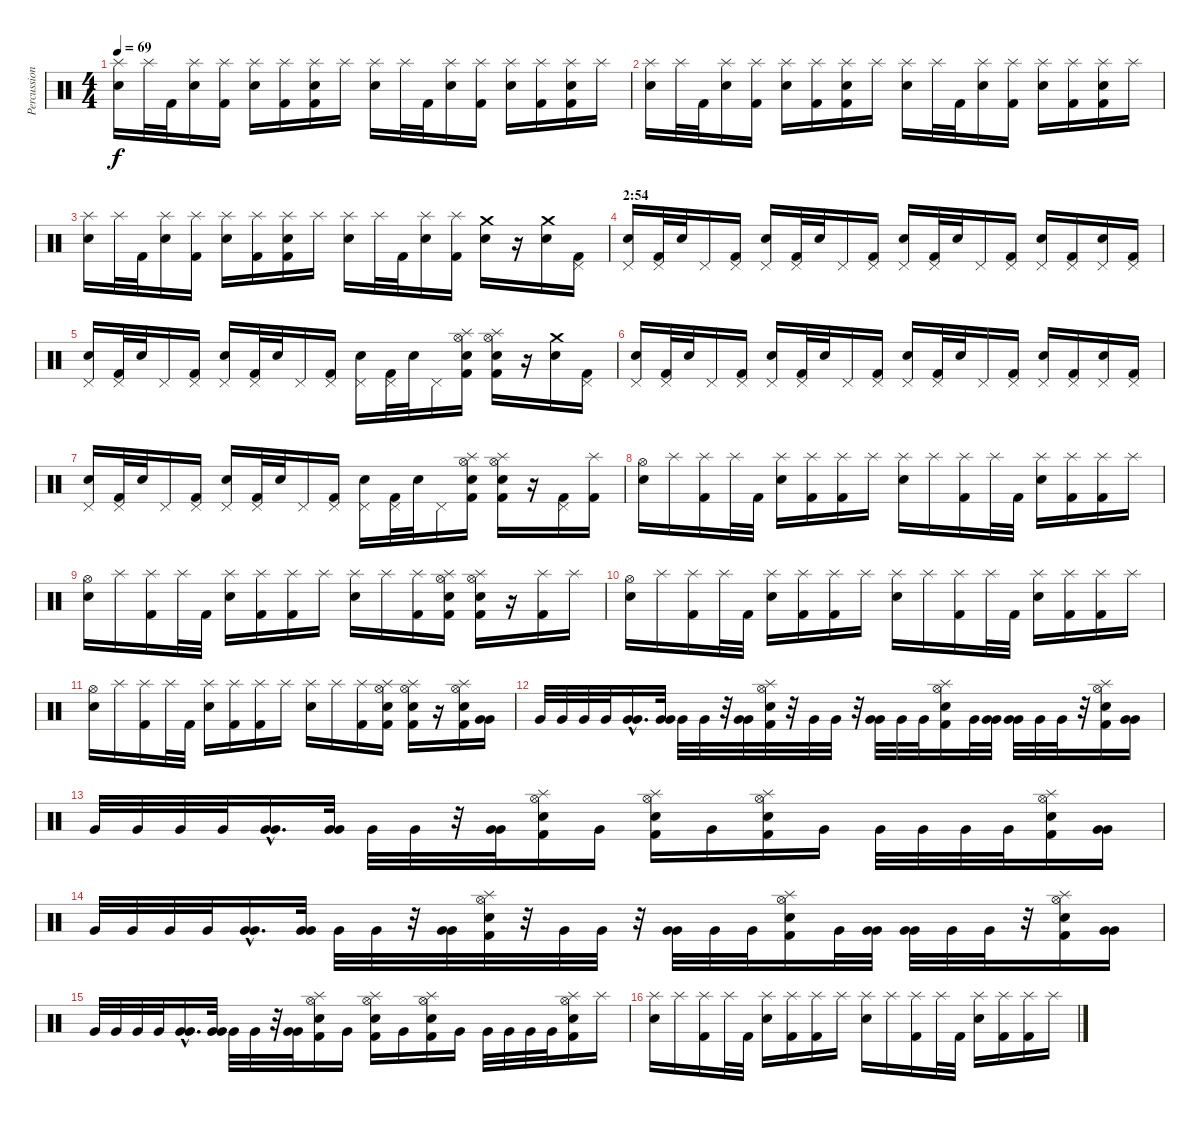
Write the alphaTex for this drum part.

\track ("Percussion" "Percussion") {instrument percussion}
\staff {score}
\articulation defaults
\ts (4 4)
\tempo 69
\clef neutral
\ks c
("Splash (hit)" "Snare (hit) 2").16{dy f} "Splash (hit)".32 "Kick (hit) 2".32 ("Splash (hit)" "Snare (hit) 2").16 ("Splash (hit)" "Kick (hit) 2").16 ("Splash (hit)" "Snare (hit) 2").16 ("Splash (hit)" "Kick (hit) 2").16 ("Splash (hit)" "Snare (hit) 2" "Kick (hit) 2").16 "Splash (hit)".16 ("Splash (hit)" "Snare (hit) 2").16 "Splash (hit)".32 "Kick (hit) 2".32 ("Splash (hit)" "Snare (hit) 2").16 ("Splash (hit)" "Kick (hit) 2").16 ("Splash (hit)" "Snare (hit) 2").16 ("Splash (hit)" "Kick (hit) 2").16 ("Splash (hit)" "Snare (hit) 2" "Kick (hit) 2").16 "Splash (hit)".16 |
("Splash (hit)" "Snare (hit) 2").16 "Splash (hit)".32 "Kick (hit) 2".32 ("Splash (hit)" "Snare (hit) 2").16 ("Splash (hit)" "Kick (hit) 2").16 ("Splash (hit)" "Snare (hit) 2").16 ("Splash (hit)" "Kick (hit) 2").16 ("Splash (hit)" "Snare (hit) 2" "Kick (hit) 2").16 "Splash (hit)".16 ("Splash (hit)" "Snare (hit) 2").16 "Splash (hit)".32 "Kick (hit) 2".32 ("Splash (hit)" "Snare (hit) 2").16 ("Splash (hit)" "Kick (hit) 2").16 ("Splash (hit)" "Snare (hit) 2").16 ("Splash (hit)" "Kick (hit) 2").16 ("Splash (hit)" "Snare (hit) 2" "Kick (hit) 2").16 "Splash (hit)".16 |
("Splash (hit)" "Snare (hit) 2").16 "Splash (hit)".32 "Kick (hit) 2".32 ("Splash (hit)" "Snare (hit) 2").16 ("Splash (hit)" "Kick (hit) 2").16 ("Splash (hit)" "Snare (hit) 2").16 ("Splash (hit)" "Kick (hit) 2").16 ("Splash (hit)" "Snare (hit) 2" "Kick (hit) 2").16 "Splash (hit)".16 ("Splash (hit)" "Snare (hit) 2").16 "Splash (hit)".32 "Kick (hit) 2".32 ("Splash (hit)" "Snare (hit) 2").16 ("Splash (hit)" "Kick (hit) 2").16 ("Crash medium (hit)" "Snare (hit) 2").16 r.16 ("Crash medium (hit)" "Snare (hit) 2").16 ("Pedal Hi-Hat (hit)" "Kick (hit) 2").16 |
\section ("" "2:54")
("Pedal Hi-Hat (hit)" "Snare (hit) 2").16 ("Pedal Hi-Hat (hit)" "Kick (hit) 2").32 "Snare (hit) 2".32 "Pedal Hi-Hat (hit)".16 ("Pedal Hi-Hat (hit)" "Kick (hit) 2").16 ("Pedal Hi-Hat (hit)" "Snare (hit) 2").16 ("Pedal Hi-Hat (hit)" "Kick (hit) 2").32 "Snare (hit) 2".32 "Pedal Hi-Hat (hit)".16 ("Pedal Hi-Hat (hit)" "Kick (hit) 2").16 ("Pedal Hi-Hat (hit)" "Snare (hit) 2").16 ("Pedal Hi-Hat (hit)" "Kick (hit) 2").32 "Snare (hit) 2".32 "Pedal Hi-Hat (hit)".16 ("Pedal Hi-Hat (hit)" "Kick (hit) 2").16 ("Pedal Hi-Hat (hit)" "Snare (hit) 2").16 ("Pedal Hi-Hat (hit)" "Kick (hit) 2").16 ("Pedal Hi-Hat (hit)" "Snare (hit) 2").16 ("Pedal Hi-Hat (hit)" "Kick (hit) 2").16 |
("Pedal Hi-Hat (hit)" "Snare (hit) 2").16 ("Pedal Hi-Hat (hit)" "Kick (hit) 2").32 "Snare (hit) 2".32 "Pedal Hi-Hat (hit)".16 ("Pedal Hi-Hat (hit)" "Kick (hit) 2").16 ("Pedal Hi-Hat (hit)" "Snare (hit) 2").16 ("Pedal Hi-Hat (hit)" "Kick (hit) 2").32 "Snare (hit) 2".32 "Pedal Hi-Hat (hit)".16 ("Pedal Hi-Hat (hit)" "Kick (hit) 2").16 ("Pedal Hi-Hat (hit)" "Snare (hit) 2").16 ("Pedal Hi-Hat (hit)" "Kick (hit) 2").32 "Snare (hit) 2".32 "Pedal Hi-Hat (hit)".16 ("Splash (hit)" "Hi-Hat (open)" "Snare (hit) 2" "Kick (hit) 2").16 ("Splash (hit)" "Hi-Hat (open)" "Snare (hit) 2" "Kick (hit) 2").16 r.16 ("Crash medium (hit)" "Snare (hit) 2").16 ("Pedal Hi-Hat (hit)" "Kick (hit) 2").16 |
("Pedal Hi-Hat (hit)" "Snare (hit) 2").16 ("Pedal Hi-Hat (hit)" "Kick (hit) 2").32 "Snare (hit) 2".32 "Pedal Hi-Hat (hit)".16 ("Pedal Hi-Hat (hit)" "Kick (hit) 2").16 ("Pedal Hi-Hat (hit)" "Snare (hit) 2").16 ("Pedal Hi-Hat (hit)" "Kick (hit) 2").32 "Snare (hit) 2".32 "Pedal Hi-Hat (hit)".16 ("Pedal Hi-Hat (hit)" "Kick (hit) 2").16 ("Pedal Hi-Hat (hit)" "Snare (hit) 2").16 ("Pedal Hi-Hat (hit)" "Kick (hit) 2").32 "Snare (hit) 2".32 "Pedal Hi-Hat (hit)".16 ("Pedal Hi-Hat (hit)" "Kick (hit) 2").16 ("Pedal Hi-Hat (hit)" "Snare (hit) 2").16 ("Pedal Hi-Hat (hit)" "Kick (hit) 2").16 ("Pedal Hi-Hat (hit)" "Snare (hit) 2").16 ("Pedal Hi-Hat (hit)" "Kick (hit) 2").16 |
("Pedal Hi-Hat (hit)" "Snare (hit) 2").16 ("Pedal Hi-Hat (hit)" "Kick (hit) 2").32 "Snare (hit) 2".32 "Pedal Hi-Hat (hit)".16 ("Pedal Hi-Hat (hit)" "Kick (hit) 2").16 ("Pedal Hi-Hat (hit)" "Snare (hit) 2").16 ("Pedal Hi-Hat (hit)" "Kick (hit) 2").32 "Snare (hit) 2".32 "Pedal Hi-Hat (hit)".16 ("Pedal Hi-Hat (hit)" "Kick (hit) 2").16 ("Pedal Hi-Hat (hit)" "Snare (hit) 2").16 ("Pedal Hi-Hat (hit)" "Kick (hit) 2").32 "Snare (hit) 2".32 "Pedal Hi-Hat (hit)".16 ("Splash (hit)" "Hi-Hat (open)" "Snare (hit) 2" "Kick (hit) 2").16 ("Splash (hit)" "Hi-Hat (open)" "Snare (hit) 2" "Kick (hit) 2").16 r.16 ("Pedal Hi-Hat (hit)" "Kick (hit) 2").16 ("Splash (hit)" "Kick (hit) 2").16 |
("Hi-Hat (open)" "Snare (hit) 2").16 "Splash (hit)".16 ("Splash (hit)" "Kick (hit) 2").16 "Splash (hit)".32 "Kick (hit) 2".32 ("Splash (hit)" "Snare (hit) 2").16 ("Splash (hit)" "Kick (hit) 2").16 ("Splash (hit)" "Kick (hit) 2").16 "Splash (hit)".16 ("Splash (hit)" "Snare (hit) 2").16 "Splash (hit)".16 ("Splash (hit)" "Kick (hit) 2").16 "Splash (hit)".32 "Kick (hit) 2".32 ("Splash (hit)" "Snare (hit) 2").16 ("Splash (hit)" "Kick (hit) 2").16 ("Splash (hit)" "Kick (hit) 2").16 "Splash (hit)".16 |
("Hi-Hat (open)" "Snare (hit) 2").16 "Splash (hit)".16 ("Splash (hit)" "Kick (hit) 2").16 "Splash (hit)".32 "Kick (hit) 2".32 ("Splash (hit)" "Snare (hit) 2").16 ("Splash (hit)" "Kick (hit) 2").16 ("Splash (hit)" "Kick (hit) 2").16 "Splash (hit)".16 ("Splash (hit)" "Snare (hit) 2").16 "Splash (hit)".16 ("Splash (hit)" "Kick (hit) 2").16 ("Splash (hit)" "Hi-Hat (open)" "Snare (hit) 2" "Kick (hit) 2").16 ("Splash (hit)" "Hi-Hat (open)" "Snare (hit) 2" "Kick (hit) 2").16 r.16 ("Splash (hit)" "Kick (hit) 2").16 "Splash (hit)".16 |
("Hi-Hat (open)" "Snare (hit) 2").16 "Splash (hit)".16 ("Splash (hit)" "Kick (hit) 2").16 "Splash (hit)".32 "Kick (hit) 2".32 ("Splash (hit)" "Snare (hit) 2").16 ("Splash (hit)" "Kick (hit) 2").16 ("Splash (hit)" "Kick (hit) 2").16 "Splash (hit)".16 ("Splash (hit)" "Snare (hit) 2").16 "Splash (hit)".16 ("Splash (hit)" "Kick (hit) 2").16 "Splash (hit)".32 "Kick (hit) 2".32 ("Splash (hit)" "Snare (hit) 2").16 ("Splash (hit)" "Kick (hit) 2").16 ("Splash (hit)" "Kick (hit) 2").16 "Splash (hit)".16 |
("Hi-Hat (open)" "Snare (hit) 2").16 "Splash (hit)".16 ("Splash (hit)" "Kick (hit) 2").16 "Splash (hit)".32 "Kick (hit) 2".32 ("Splash (hit)" "Snare (hit) 2").16 ("Splash (hit)" "Kick (hit) 2").16 ("Splash (hit)" "Kick (hit) 2").16 "Splash (hit)".16 ("Splash (hit)" "Snare (hit) 2").16 "Splash (hit)".16 ("Splash (hit)" "Kick (hit) 2").16 ("Splash (hit)" "Hi-Hat (open)" "Snare (hit) 2" "Kick (hit) 2").16 ("Splash (hit)" "Hi-Hat (open)" "Snare (hit) 2" "Kick (hit) 2").16 r.16 ("Splash (hit)" "Hi-Hat (open)" "Snare (hit) 2" "Kick (hit) 2").16 ("Very Low Tom (hit)" "Very Low Tom (hit)").16 |
"Very Low Tom (hit)".32 "Very Low Tom (hit)".32 "Very Low Tom (hit)".32 "Very Low Tom (hit)".32 ("Very Low Tom (hit)"{hac} "Very Low Tom (hit)"{hac}).16{d} ("Very Low Tom (hit)" "Very Low Tom (hit)").32 "Very Low Tom (hit)".32 "Very Low Tom (hit)".32 r.32 ("Very Low Tom (hit)" "Very Low Tom (hit)").32 ("Splash (hit)" "Hi-Hat (open)" "Snare (hit) 2" "Kick (hit) 2").32 r.32 "Very Low Tom (hit)".32 "Very Low Tom (hit)".32 r.32 ("Very Low Tom (hit)" "Very Low Tom (hit)").32 "Very Low Tom (hit)".32 "Very Low Tom (hit)".32 ("Splash (hit)" "Hi-Hat (open)" "Snare (hit) 2" "Kick (hit) 2").16 "Very Low Tom (hit)".32 ("Very Low Tom (hit)" "Very Low Tom (hit)").32 ("Very Low Tom (hit)" "Very Low Tom (hit)").32 "Very Low Tom (hit)".32 "Very Low Tom (hit)".32 r.32 ("Splash (hit)" "Hi-Hat (open)" "Snare (hit) 2" "Kick (hit) 2").16 ("Very Low Tom (hit)" "Very Low Tom (hit)").16 |
"Very Low Tom (hit)".32 "Very Low Tom (hit)".32 "Very Low Tom (hit)".32 "Very Low Tom (hit)".32 ("Very Low Tom (hit)"{hac} "Very Low Tom (hit)"{hac}).16{d} ("Very Low Tom (hit)" "Very Low Tom (hit)").32 "Very Low Tom (hit)".32 "Very Low Tom (hit)".32 r.32 ("Very Low Tom (hit)" "Very Low Tom (hit)").32 ("Splash (hit)" "Hi-Hat (open)" "Snare (hit) 2" "Kick (hit) 2").16 "Very Low Tom (hit)".16 ("Splash (hit)" "Hi-Hat (open)" "Snare (hit) 2" "Kick (hit) 2").16 "Very Low Tom (hit)".16 ("Splash (hit)" "Hi-Hat (open)" "Snare (hit) 2" "Kick (hit) 2").16 "Very Low Tom (hit)".16 "Very Low Tom (hit)".32 "Very Low Tom (hit)".32 "Very Low Tom (hit)".32 "Very Low Tom (hit)".32 ("Splash (hit)" "Hi-Hat (open)" "Snare (hit) 2" "Kick (hit) 2").16 ("Very Low Tom (hit)" "Very Low Tom (hit)").16 |
"Very Low Tom (hit)".32 "Very Low Tom (hit)".32 "Very Low Tom (hit)".32 "Very Low Tom (hit)".32 ("Very Low Tom (hit)"{hac} "Very Low Tom (hit)"{hac}).16{d} ("Very Low Tom (hit)" "Very Low Tom (hit)").32 "Very Low Tom (hit)".32 "Very Low Tom (hit)".32 r.32 ("Very Low Tom (hit)" "Very Low Tom (hit)").32 ("Splash (hit)" "Hi-Hat (open)" "Snare (hit) 2" "Kick (hit) 2").32 r.32 "Very Low Tom (hit)".32 "Very Low Tom (hit)".32 r.32 ("Very Low Tom (hit)" "Very Low Tom (hit)").32 "Very Low Tom (hit)".32 "Very Low Tom (hit)".32 ("Splash (hit)" "Hi-Hat (open)" "Snare (hit) 2" "Kick (hit) 2").16 "Very Low Tom (hit)".32 ("Very Low Tom (hit)" "Very Low Tom (hit)").32 ("Very Low Tom (hit)" "Very Low Tom (hit)").32 "Very Low Tom (hit)".32 "Very Low Tom (hit)".32 r.32 ("Splash (hit)" "Hi-Hat (open)" "Snare (hit) 2" "Kick (hit) 2").16 ("Very Low Tom (hit)" "Very Low Tom (hit)").16 |
"Very Low Tom (hit)".32 "Very Low Tom (hit)".32 "Very Low Tom (hit)".32 "Very Low Tom (hit)".32 ("Very Low Tom (hit)"{hac} "Very Low Tom (hit)"{hac}).16{d} ("Very Low Tom (hit)" "Very Low Tom (hit)").32 "Very Low Tom (hit)".32 "Very Low Tom (hit)".32 r.32 ("Very Low Tom (hit)" "Very Low Tom (hit)").32 ("Splash (hit)" "Hi-Hat (open)" "Snare (hit) 2" "Kick (hit) 2").16 "Very Low Tom (hit)".16 ("Splash (hit)" "Hi-Hat (open)" "Snare (hit) 2" "Kick (hit) 2").16 "Very Low Tom (hit)".16 ("Splash (hit)" "Hi-Hat (open)" "Snare (hit) 2" "Kick (hit) 2").16 "Very Low Tom (hit)".16 "Very Low Tom (hit)".32 "Very Low Tom (hit)".32 "Very Low Tom (hit)".32 "Very Low Tom (hit)".32 ("Splash (hit)" "Hi-Hat (open)" "Snare (hit) 2" "Kick (hit) 2").16 "Splash (hit)".16 |
("Splash (hit)" "Snare (hit) 2").16 "Splash (hit)".16 ("Splash (hit)" "Kick (hit) 2").16 "Splash (hit)".32 "Kick (hit) 2".32 ("Splash (hit)" "Snare (hit) 2").16 ("Splash (hit)" "Kick (hit) 2").16 ("Splash (hit)" "Kick (hit) 2").16 "Splash (hit)".16 ("Splash (hit)" "Snare (hit) 2").16 "Splash (hit)".16 ("Splash (hit)" "Kick (hit) 2").16 "Splash (hit)".32 "Kick (hit) 2".32 ("Splash (hit)" "Snare (hit) 2").16 ("Splash (hit)" "Kick (hit) 2").16 ("Splash (hit)" "Kick (hit) 2").16 "Splash (hit)".16
